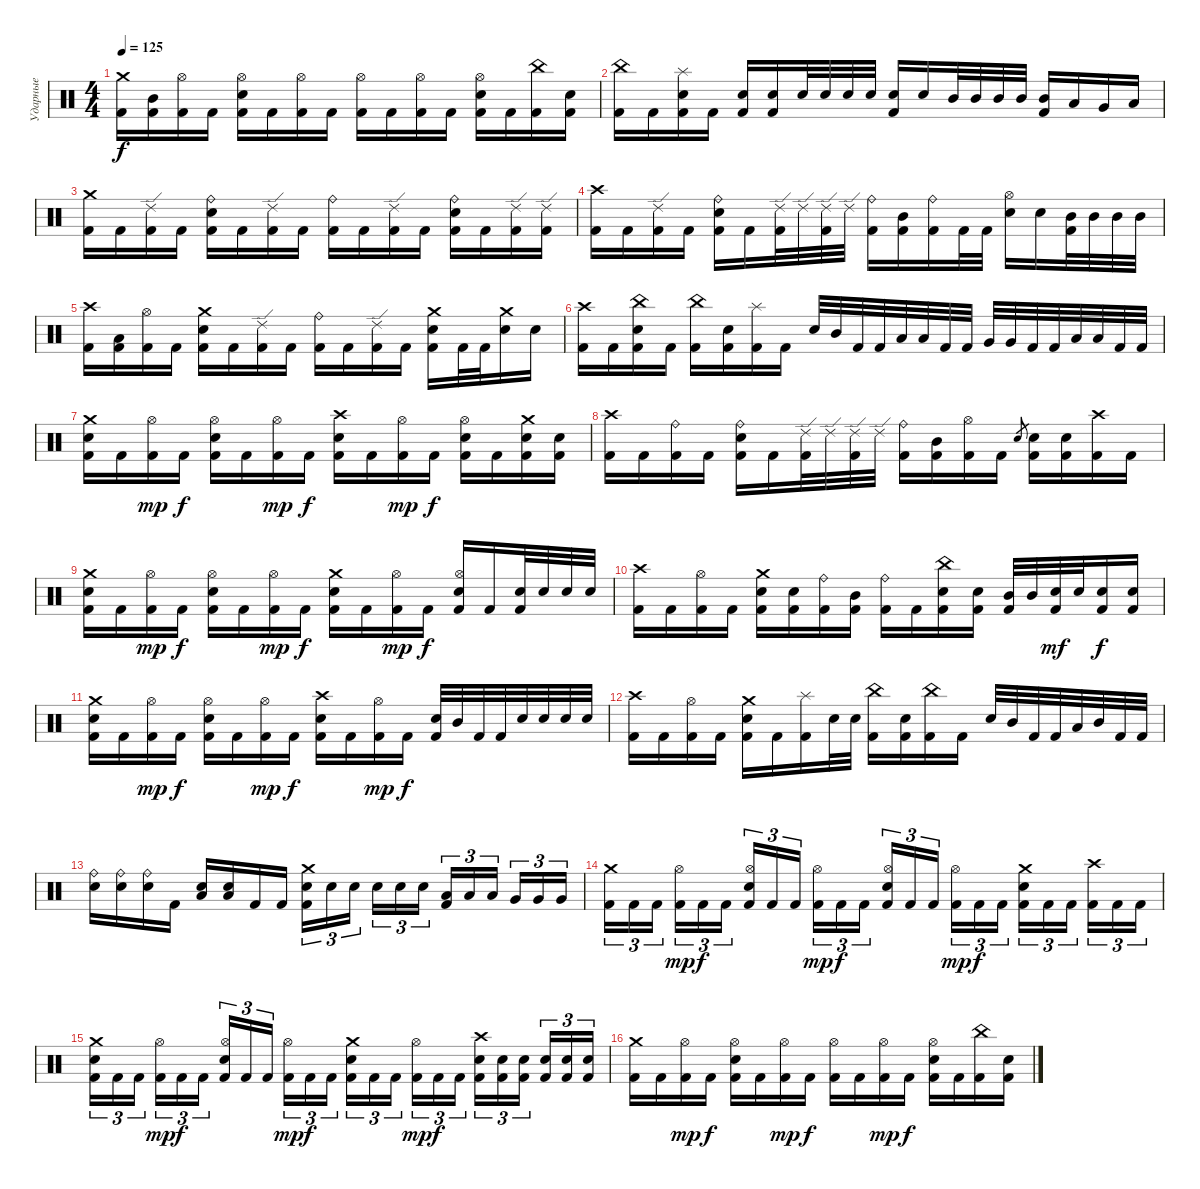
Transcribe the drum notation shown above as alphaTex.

\track ("Ударные" "Ударные") {instrument percussion}
\staff {score}
\articulation defaults
\ts (4 4)
\tempo 125
\clef neutral
\ks c
("Crash medium (hit)" "Kick (hit) 2").16{dy f} ("Mid Tom (hit)" "Kick (hit) 2").16 ("Hi-Hat (open)" "Kick (hit) 2").16 "Kick (hit) 2".16 ("Hi-Hat (open)" "Electric Snare (hit)" "Kick (hit) 2").16 "Kick (hit) 2".16 ("Hi-Hat (open)" "Kick (hit) 2").16 "Kick (hit) 2".16 ("Hi-Hat (open)" "Kick (hit) 2").16 "Kick (hit) 2".16 ("Hi-Hat (open)" "Kick (hit) 2").16 "Kick (hit) 2".16 ("Hi-Hat (open)" "Electric Snare (hit)" "Kick (hit) 2").16 "Kick (hit) 2".16 ("China (hit)" "Kick (hit) 2").16 ("Electric Snare (hit)" "Kick (hit) 2").16 |
("China (hit)" "Kick (hit) 2").16 "Kick (hit) 2".16 ("Splash (hit)" "Electric Snare (hit)" "Kick (hit) 2").16 "Kick (hit) 2".16 ("Electric Snare (hit)" "Kick (hit) 2").16 ("Electric Snare (hit)" "Kick (hit) 2").16 "Electric Snare (hit)".32 "Electric Snare (hit)".32 "Electric Snare (hit)".32 "Electric Snare (hit)".32 ("Electric Snare (hit)" "Kick (hit) 2").16 "Electric Snare (hit)".16 "Mid Tom (hit)".32 "Mid Tom (hit)".32 "Mid Tom (hit)".32 "Mid Tom (hit)".32 ("Mid Tom (hit)" "Kick (hit) 2").16 "Low Tom (hit)".16 "Very Low Tom (hit)".16 "Low Floor Tom (hit)".16 |
("Crash medium (hit)" "Kick (hit) 2").16 "Kick (hit) 2".16 ("Ride (edge) 2" "Kick (hit) 2").16 "Kick (hit) 2".16 ("Ride (bell)" "Electric Snare (hit)" "Kick (hit) 2").16 "Kick (hit) 2".16 ("Ride (edge) 2" "Kick (hit) 2").16 "Kick (hit) 2".16 ("Ride (bell)" "Kick (hit) 2").16 "Kick (hit) 2".16 ("Ride (edge) 2" "Kick (hit) 2").16 "Kick (hit) 2".16 ("Ride (bell)" "Electric Snare (hit)" "Kick (hit) 2").16 "Kick (hit) 2".16 ("Ride (edge) 2" "Kick (hit) 2").16 ("Ride (edge) 2" "Kick (hit) 2").16 |
("Crash high (hit)" "Kick (hit) 2").16 "Kick (hit) 2".16 ("Ride (edge) 2" "Kick (hit) 2").16 "Kick (hit) 2".16 ("Ride (bell)" "Electric Snare (hit)" "Kick (hit) 2").16 "Kick (hit) 2".16 ("Ride (edge) 2" "Kick (hit) 2").32 "Ride (edge) 2".32 ("Ride (edge) 2" "Kick (hit) 2").32 "Ride (edge) 2".32 ("Ride (bell)" "Kick (hit) 2").16 ("Mid Tom (hit)" "Kick (hit) 2").16 ("Ride (bell)" "Kick (hit) 2").16 "Kick (hit) 2".32 "Kick (hit) 2".32 ("Hi-Hat (open)" "Electric Snare (hit)").16 "Electric Snare (hit)".16 ("Mid Tom (hit)" "Kick (hit) 2").32 "Mid Tom (hit)".32 "Mid Tom (hit)".32 "Mid Tom (hit)".32 |
("Crash high (hit)" "Kick (hit) 2").16 ("Low Tom (hit)" "Kick (hit) 2").16 ("Hi-Hat (open)" "Kick (hit) 2").16 "Kick (hit) 2".16 ("Crash medium (hit)" "Electric Snare (hit)" "Kick (hit) 2").16 "Kick (hit) 2".16 ("Ride (edge) 2" "Kick (hit) 2").16 "Kick (hit) 2".16 ("Ride (bell)" "Kick (hit) 2").16 "Kick (hit) 2".16 ("Ride (edge) 2" "Kick (hit) 2").16 "Kick (hit) 2".16 ("Crash medium (hit)" "Electric Snare (hit)" "Kick (hit) 2").16 "Kick (hit) 2".32 "Kick (hit) 2".32 ("Crash medium (hit)" "Electric Snare (hit)").16 "Electric Snare (hit)".16 |
("Crash high (hit)" "Kick (hit) 2").16 "Kick (hit) 2".16 ("China (hit)" "Electric Snare (hit)" "Kick (hit) 2").16 "Kick (hit) 2".16 ("China (hit)" "Kick (hit) 2").16 ("Electric Snare (hit)" "Kick (hit) 2").16 ("Splash (hit)" "Kick (hit) 2").16 "Kick (hit) 2".16 "Electric Snare (hit)".32 "Mid Tom (hit)".32 "Kick (hit) 2".32 "Kick (hit) 2".32 "Low Tom (hit)".32 "Low Tom (hit)".32 "Kick (hit) 2".32 "Kick (hit) 2".32 "Very Low Tom (hit)".32 "Very Low Tom (hit)".32 "Kick (hit) 2".32 "Kick (hit) 2".32 "Low Floor Tom (hit)".32 "Low Floor Tom (hit)".32 "Kick (hit) 2".32 "Kick (hit) 2".32 |
("Crash medium (hit)" "Electric Snare (hit)" "Kick (hit) 2").16 "Kick (hit) 2".16 ("Hi-Hat (open)" "Kick (hit) 2").16{dy mp} "Kick (hit) 2".16{dy f} ("Hi-Hat (open)" "Electric Snare (hit)" "Kick (hit) 2").16 "Kick (hit) 2".16 ("Hi-Hat (open)" "Kick (hit) 2").16{dy mp} "Kick (hit) 2".16{dy f} ("Crash high (hit)" "Electric Snare (hit)" "Kick (hit) 2").16 "Kick (hit) 2".16 ("Hi-Hat (open)" "Kick (hit) 2").16{dy mp} "Kick (hit) 2".16{dy f} ("Hi-Hat (open)" "Electric Snare (hit)" "Kick (hit) 2").16 "Kick (hit) 2".16 ("Crash medium (hit)" "Electric Snare (hit)" "Kick (hit) 2").16 ("Electric Snare (hit)" "Kick (hit) 2").16 |
("Crash high (hit)" "Kick (hit) 2").16 "Kick (hit) 2".16 ("Ride (bell)" "Kick (hit) 2").16 "Kick (hit) 2".16 ("Ride (bell)" "Electric Snare (hit)" "Kick (hit) 2").16 "Kick (hit) 2".16 ("Ride (edge) 2" "Kick (hit) 2").32 "Ride (edge) 2".32 ("Ride (edge) 2" "Kick (hit) 2").32 "Ride (edge) 2".32 ("Ride (bell)" "Kick (hit) 2").16 ("Mid Tom (hit)" "Kick (hit) 2").16 ("Hi-Hat (open)" "Kick (hit) 2").16 "Kick (hit) 2".16 "Electric Snare (hit)".8{gr} ("Electric Snare (hit)" "Kick (hit) 2").16 ("Electric Snare (hit)" "Kick (hit) 2").16 ("Crash high (hit)" "Kick (hit) 2").16 "Kick (hit) 2".16 |
("Crash medium (hit)" "Electric Snare (hit)" "Kick (hit) 2").16 "Kick (hit) 2".16 ("Hi-Hat (open)" "Kick (hit) 2").16{dy mp} "Kick (hit) 2".16{dy f} ("Hi-Hat (open)" "Electric Snare (hit)" "Kick (hit) 2").16 "Kick (hit) 2".16 ("Hi-Hat (open)" "Kick (hit) 2").16{dy mp} "Kick (hit) 2".16{dy f} ("Crash medium (hit)" "Electric Snare (hit)" "Kick (hit) 2").16 "Kick (hit) 2".16 ("Hi-Hat (open)" "Kick (hit) 2").16{dy mp} "Kick (hit) 2".16{dy f} ("Hi-Hat (open)" "Electric Snare (hit)" "Kick (hit) 2").16 "Kick (hit) 2".16 ("Electric Snare (hit)" "Kick (hit) 2").32 "Electric Snare (hit)".32 "Electric Snare (hit)".32 "Electric Snare (hit)".32 |
("Crash high (hit)" "Kick (hit) 2").16 "Kick (hit) 2".16 ("Hi-Hat (open)" "Kick (hit) 2").16 "Kick (hit) 2".16 ("Crash medium (hit)" "Electric Snare (hit)" "Kick (hit) 2").16 ("Electric Snare (hit)" "Kick (hit) 2").16 ("Ride (bell)" "Kick (hit) 2").16 ("Mid Tom (hit)" "Kick (hit) 2").16 ("Ride (bell)" "Kick (hit) 2").16 "Kick (hit) 2".16 ("China (hit)" "Electric Snare (hit)" "Kick (hit) 2").16 ("Electric Snare (hit)" "Kick (hit) 2").16 ("Mid Tom (hit)" "Kick (hit) 2").32 "Mid Tom (hit)".32 ("Electric Snare (hit)" "Kick (hit) 2").32{dy mf} "Electric Snare (hit)".32 ("Electric Snare (hit)" "Kick (hit) 2").16{dy f} ("Electric Snare (hit)" "Kick (hit) 2").16 |
("Crash medium (hit)" "Electric Snare (hit)" "Kick (hit) 2").16 "Kick (hit) 2".16 ("Hi-Hat (open)" "Kick (hit) 2").16{dy mp} "Kick (hit) 2".16{dy f} ("Hi-Hat (open)" "Electric Snare (hit)" "Kick (hit) 2").16 "Kick (hit) 2".16 ("Hi-Hat (open)" "Kick (hit) 2").16{dy mp} "Kick (hit) 2".16{dy f} ("Crash high (hit)" "Electric Snare (hit)" "Kick (hit) 2").16 "Kick (hit) 2".16 ("Hi-Hat (open)" "Kick (hit) 2").16{dy mp} "Kick (hit) 2".16{dy f} ("Electric Snare (hit)" "Kick (hit) 2").32 "Mid Tom (hit)".32 "Kick (hit) 2".32 "Kick (hit) 2".32 "Electric Snare (hit)".32 "Electric Snare (hit)".32 "Electric Snare (hit)".32 "Electric Snare (hit)".32 |
("Crash high (hit)" "Kick (hit) 2").16 "Kick (hit) 2".16 ("Hi-Hat (open)" "Kick (hit) 2").16 "Kick (hit) 2".16 ("Crash medium (hit)" "Electric Snare (hit)" "Kick (hit) 2").16 "Kick (hit) 2".16 ("Splash (hit)" "Kick (hit) 2").16 "Electric Snare (hit)".32 "Electric Snare (hit)".32 ("China (hit)" "Kick (hit) 2").16 ("Electric Snare (hit)" "Kick (hit) 2").16 ("China (hit)" "Kick (hit) 2").16 "Kick (hit) 2".16 "Electric Snare (hit)".32 "Mid Tom (hit)".32 "Kick (hit) 2".32 "Kick (hit) 2".32 "Low Tom (hit)".32 "Mid Tom (hit)".32 "Kick (hit) 2".32 "Kick (hit) 2".32 |
("Ride (bell)" "Electric Snare (hit)").16 ("Ride (bell)" "Electric Snare (hit)").16 ("Ride (bell)" "Electric Snare (hit)").16 "Kick (hit) 2".16 ("Low Floor Tom (hit)" "Electric Snare (hit)").16 ("Low Floor Tom (hit)" "Electric Snare (hit)").16 "Kick (hit) 2".16 "Kick (hit) 2".16 ("Crash medium (hit)" "Electric Snare (hit)" "Kick (hit) 2").16{tu (3 2)} "Electric Snare (hit)".16{tu (3 2)} "Electric Snare (hit)".16{tu (3 2) beam splitsecondary} "Electric Snare (hit)".16{tu (3 2)} "Electric Snare (hit)".16{tu (3 2)} "Electric Snare (hit)".16{tu (3 2)} ("Low Tom (hit)" "Kick (hit) 2").16{tu (3 2)} "Low Tom (hit)".16{tu (3 2)} "Low Tom (hit)".16{tu (3 2) beam splitsecondary} "Very Low Tom (hit)".16{tu (3 2)} "Very Low Tom (hit)".16{tu (3 2)} "Very Low Tom (hit)".16{tu (3 2)} |
("Crash medium (hit)" "Kick (hit) 2").16{tu (3 2)} "Kick (hit) 2".16{tu (3 2)} "Kick (hit) 2".16{tu (3 2) beam splitsecondary} ("Hi-Hat (open)" "Kick (hit) 2").16{tu (3 2) dy mp} "Kick (hit) 2".16{tu (3 2) dy f} "Kick (hit) 2".16{tu (3 2)} ("Hi-Hat (open)" "Electric Snare (hit)" "Kick (hit) 2").16{tu (3 2)} "Kick (hit) 2".16{tu (3 2)} "Kick (hit) 2".16{tu (3 2) beam splitsecondary} ("Hi-Hat (open)" "Kick (hit) 2").16{tu (3 2) dy mp} "Kick (hit) 2".16{tu (3 2) dy f} "Kick (hit) 2".16{tu (3 2)} ("Hi-Hat (open)" "Electric Snare (hit)" "Kick (hit) 2").16{tu (3 2)} "Kick (hit) 2".16{tu (3 2)} "Kick (hit) 2".16{tu (3 2) beam splitsecondary} ("Hi-Hat (open)" "Kick (hit) 2").16{tu (3 2) dy mp} "Kick (hit) 2".16{tu (3 2) dy f} "Kick (hit) 2".16{tu (3 2)} ("Crash medium (hit)" "Electric Snare (hit)" "Kick (hit) 2").16{tu (3 2)} "Kick (hit) 2".16{tu (3 2)} "Kick (hit) 2".16{tu (3 2) beam splitsecondary} ("Crash high (hit)" "Kick (hit) 2").16{tu (3 2)} "Kick (hit) 2".16{tu (3 2)} "Kick (hit) 2".16{tu (3 2)} |
("Crash medium (hit)" "Electric Snare (hit)" "Kick (hit) 2").16{tu (3 2)} "Kick (hit) 2".16{tu (3 2)} "Kick (hit) 2".16{tu (3 2) beam splitsecondary} ("Hi-Hat (open)" "Kick (hit) 2").16{tu (3 2) dy mp} "Kick (hit) 2".16{tu (3 2) dy f} "Kick (hit) 2".16{tu (3 2)} ("Hi-Hat (open)" "Electric Snare (hit)" "Kick (hit) 2").16{tu (3 2)} "Kick (hit) 2".16{tu (3 2)} "Kick (hit) 2".16{tu (3 2) beam splitsecondary} ("Hi-Hat (open)" "Kick (hit) 2").16{tu (3 2) dy mp} "Kick (hit) 2".16{tu (3 2) dy f} "Kick (hit) 2".16{tu (3 2)} ("Crash medium (hit)" "Electric Snare (hit)" "Kick (hit) 2").16{tu (3 2)} "Kick (hit) 2".16{tu (3 2)} "Kick (hit) 2".16{tu (3 2) beam splitsecondary} ("Hi-Hat (open)" "Kick (hit) 2").16{tu (3 2) dy mp} "Kick (hit) 2".16{tu (3 2) dy f} "Kick (hit) 2".16{tu (3 2)} ("Crash high (hit)" "Electric Snare (hit)" "Kick (hit) 2").16{tu (3 2)} ("Electric Snare (hit)" "Kick (hit) 2").16{tu (3 2)} ("Electric Snare (hit)" "Kick (hit) 2").16{tu (3 2) beam splitsecondary} ("Electric Snare (hit)" "Kick (hit) 2").16{tu (3 2)} ("Electric Snare (hit)" "Kick (hit) 2").16{tu (3 2)} ("Electric Snare (hit)" "Kick (hit) 2").16{tu (3 2)} |
("Crash medium (hit)" "Kick (hit) 2").16 "Kick (hit) 2".16 ("Hi-Hat (open)" "Kick (hit) 2").16{dy mp} "Kick (hit) 2".16{dy f} ("Hi-Hat (open)" "Electric Snare (hit)" "Kick (hit) 2").16 "Kick (hit) 2".16 ("Hi-Hat (open)" "Kick (hit) 2").16{dy mp} "Kick (hit) 2".16{dy f} ("Hi-Hat (open)" "Kick (hit) 2").16 "Kick (hit) 2".16 ("Hi-Hat (open)" "Kick (hit) 2").16{dy mp} "Kick (hit) 2".16{dy f} ("Hi-Hat (open)" "Electric Snare (hit)" "Kick (hit) 2").16 "Kick (hit) 2".16 ("China (hit)" "Kick (hit) 2").16 ("Electric Snare (hit)" "Kick (hit) 2").16
